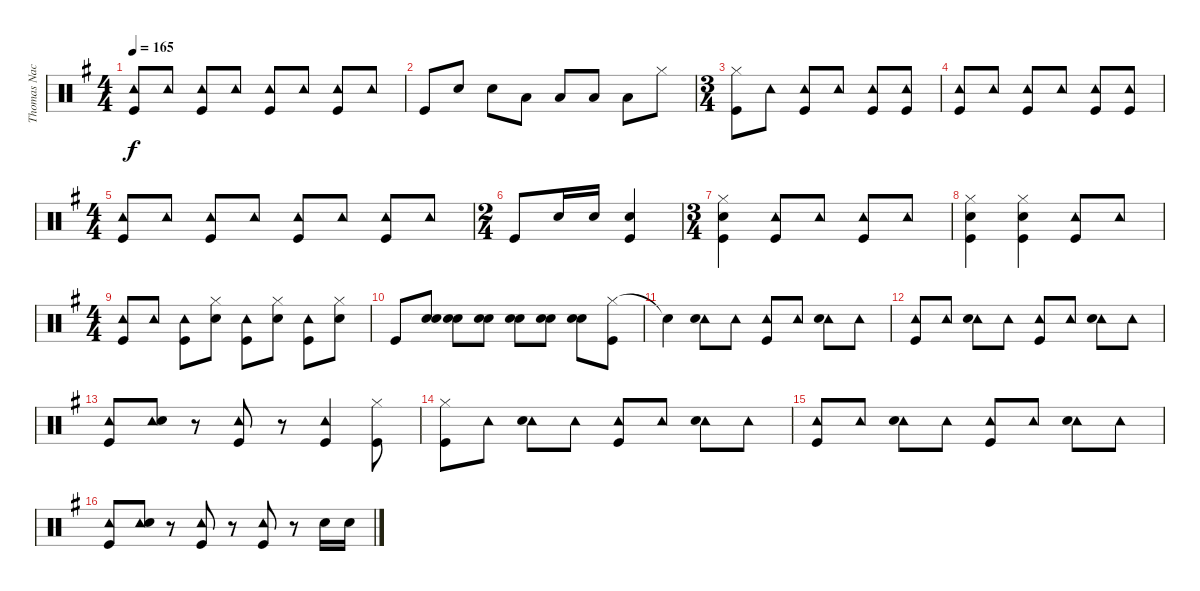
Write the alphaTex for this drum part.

\track ("Thomas Nack" "Thomas Nac") {instrument percussion}
\staff {score}
\articulation defaults
\ts (4 4)
\tempo 165
\clef neutral
\ks g
("Tambourine (hit)" "Kick (hit)").8{dy f} "Tambourine (hit)".8 ("Tambourine (hit)" "Kick (hit)").8 "Tambourine (hit)".8 ("Tambourine (hit)" "Kick (hit)").8 "Tambourine (hit)".8 ("Tambourine (hit)" "Kick (hit)").8 "Tambourine (hit)".8 |
"Kick (hit)".8 "Snare (hit) 2".8 "Snare (hit) 2".8 "Low Tom (hit)".8 "Low Tom (hit)".8 "Low Tom (hit)".8 "Low Tom (hit)".8 "Hi-Hat (closed)".8 |
\ts (3 4)
("Hi-Hat (closed)" "Kick (hit)").8 "Tambourine (hit)".8 ("Tambourine (hit)" "Kick (hit)").8 "Tambourine (hit)".8 ("Tambourine (hit)" "Kick (hit)").8 ("Tambourine (hit)" "Kick (hit)").8 |
("Tambourine (hit)" "Kick (hit)").8 "Tambourine (hit)".8 ("Tambourine (hit)" "Kick (hit)").8 "Tambourine (hit)".8 ("Tambourine (hit)" "Kick (hit)").8 ("Tambourine (hit)" "Kick (hit)").8 |
\ts (4 4)
("Tambourine (hit)" "Kick (hit)").8 "Tambourine (hit)".8 ("Tambourine (hit)" "Kick (hit)").8 "Tambourine (hit)".8 ("Tambourine (hit)" "Kick (hit)").8 "Tambourine (hit)".8 ("Tambourine (hit)" "Kick (hit)").8 "Tambourine (hit)".8 |
\ts (2 4)
"Kick (hit)".8 "Snare (hit) 2".16 "Snare (hit) 2".16 ("Snare (hit) 2" "Kick (hit)").4 |
\ts (3 4)
("Hi-Hat (closed)" "Snare (hit) 2" "Kick (hit)").4 ("Tambourine (hit)" "Kick (hit)").8 "Tambourine (hit)".8 ("Tambourine (hit)" "Kick (hit)").8 "Tambourine (hit)".8 |
("Hi-Hat (closed)" "Snare (hit) 2" "Kick (hit)").4 ("Hi-Hat (closed)" "Snare (hit) 2" "Kick (hit)").4 ("Tambourine (hit)" "Kick (hit)").8 "Tambourine (hit)".8 |
\ts (4 4)
("Tambourine (hit)" "Kick (hit)").8 "Tambourine (hit)".8 ("Tambourine (hit)" "Kick (hit)").8 ("Hi-Hat (closed)" "Snare (hit) 2").8 ("Tambourine (hit)" "Kick (hit)").8 ("Hi-Hat (closed)" "Snare (hit) 2").8 ("Tambourine (hit)" "Kick (hit)").8 ("Hi-Hat (closed)" "Snare (hit) 2").8 |
"Kick (hit)".8 ("Snare (hit) 2" "Snare (hit) 2").8 ("Snare (hit) 2" "Snare (hit) 2").8 ("Snare (hit) 2" "Snare (hit) 2").8 ("Snare (hit) 2" "Snare (hit) 2").8 ("Snare (hit) 2" "Snare (hit) 2").8 ("Snare (hit) 2" "Snare (hit) 2").8 ("Hi-Hat (closed)" "Kick (hit)").8 |
"Snare (hit)"{t}.4 ("Tambourine (hit)" "Snare (hit) 2").8 "Tambourine (hit)".8 ("Tambourine (hit)" "Kick (hit)").8 "Tambourine (hit)".8 ("Tambourine (hit)" "Snare (hit) 2").8 "Tambourine (hit)".8 |
("Tambourine (hit)" "Kick (hit)").8 "Tambourine (hit)".8 ("Tambourine (hit)" "Snare (hit) 2").8 "Tambourine (hit)".8 ("Tambourine (hit)" "Kick (hit)").8 "Tambourine (hit)".8 ("Tambourine (hit)" "Snare (hit) 2").8 "Tambourine (hit)".8 |
("Tambourine (hit)" "Kick (hit)").8 ("Tambourine (hit)" "Snare (hit) 2").8 r.8 ("Tambourine (hit)" "Kick (hit)").8 r.8 ("Tambourine (hit)" "Kick (hit)").4 ("Hi-Hat (closed)" "Kick (hit)").8 |
("Hi-Hat (closed)" "Kick (hit)").8 "Tambourine (hit)".8 ("Tambourine (hit)" "Snare (hit) 2").8 "Tambourine (hit)".8 ("Tambourine (hit)" "Kick (hit)").8 "Tambourine (hit)".8 ("Tambourine (hit)" "Snare (hit) 2").8 "Tambourine (hit)".8 |
("Tambourine (hit)" "Kick (hit)").8 "Tambourine (hit)".8 ("Tambourine (hit)" "Snare (hit) 2").8 "Tambourine (hit)".8 ("Tambourine (hit)" "Kick (hit)").8 "Tambourine (hit)".8 ("Tambourine (hit)" "Snare (hit) 2").8 "Tambourine (hit)".8 |
("Tambourine (hit)" "Kick (hit)").8 ("Tambourine (hit)" "Snare (hit) 2").8 r.8 ("Tambourine (hit)" "Kick (hit)").8 r.8 ("Tambourine (hit)" "Kick (hit)").8 r.8 "Snare (hit) 2".16 "Snare (hit) 2".16
